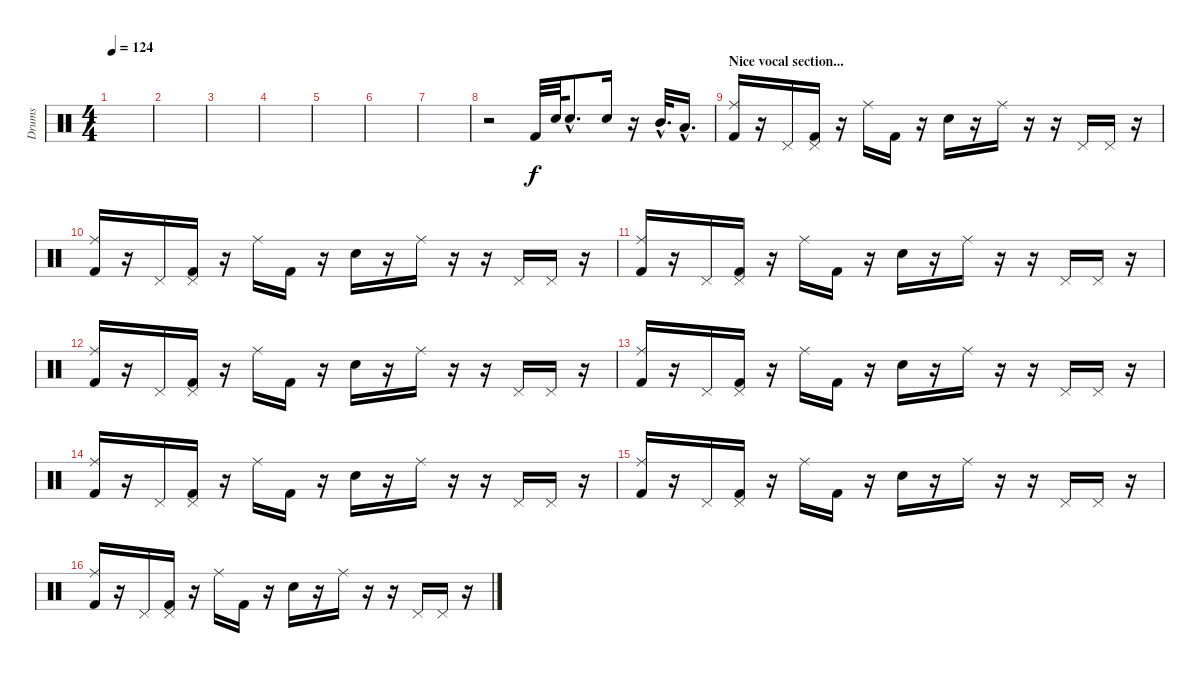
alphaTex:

\track ("Drums" "Drums") {instrument percussion}
\staff {score}
\articulation defaults
\ts (4 4)
\tempo 124
\clef neutral
\ks c
|
|
|
|
|
|
|
r.2 "Kick (hit) 2".32 "Electric Snare (hit)".64 "Electric Snare (hit)"{hac}.8{d} "Electric Snare (hit)".16 r.16 "Mid Tom (hit)"{hac}.32{d} "Low Tom (hit)"{hac}.16{d} |
\section ("" "Nice vocal section...")
("Ride (middle)" "Kick (hit) 2").16 r.16 "Pedal Hi-Hat (hit)".16 ("Pedal Hi-Hat (hit)" "Kick (hit) 2").16 r.16 "Ride (middle)".16 "Kick (hit) 2".16 r.16 "Electric Snare (hit)".16 r.16 "Ride (middle)".16 r.16 r.16 "Pedal Hi-Hat (hit)".16 "Pedal Hi-Hat (hit)".16 r.16 |
("Ride (middle)" "Kick (hit) 2").16 r.16 "Pedal Hi-Hat (hit)".16 ("Pedal Hi-Hat (hit)" "Kick (hit) 2").16 r.16 "Ride (middle)".16 "Kick (hit) 2".16 r.16 "Electric Snare (hit)".16 r.16 "Ride (middle)".16 r.16 r.16 "Pedal Hi-Hat (hit)".16 "Pedal Hi-Hat (hit)".16 r.16 |
("Ride (middle)" "Kick (hit) 2").16 r.16 "Pedal Hi-Hat (hit)".16 ("Pedal Hi-Hat (hit)" "Kick (hit) 2").16 r.16 "Ride (middle)".16 "Kick (hit) 2".16 r.16 "Electric Snare (hit)".16 r.16 "Ride (middle)".16 r.16 r.16 "Pedal Hi-Hat (hit)".16 "Pedal Hi-Hat (hit)".16 r.16 |
("Ride (middle)" "Kick (hit) 2").16 r.16 "Pedal Hi-Hat (hit)".16 ("Pedal Hi-Hat (hit)" "Kick (hit) 2").16 r.16 "Ride (middle)".16 "Kick (hit) 2".16 r.16 "Electric Snare (hit)".16 r.16 "Ride (middle)".16 r.16 r.16 "Pedal Hi-Hat (hit)".16 "Pedal Hi-Hat (hit)".16 r.16 |
("Ride (middle)" "Kick (hit) 2").16 r.16 "Pedal Hi-Hat (hit)".16 ("Pedal Hi-Hat (hit)" "Kick (hit) 2").16 r.16 "Ride (middle)".16 "Kick (hit) 2".16 r.16 "Electric Snare (hit)".16 r.16 "Ride (middle)".16 r.16 r.16 "Pedal Hi-Hat (hit)".16 "Pedal Hi-Hat (hit)".16 r.16 |
("Ride (middle)" "Kick (hit) 2").16 r.16 "Pedal Hi-Hat (hit)".16 ("Pedal Hi-Hat (hit)" "Kick (hit) 2").16 r.16 "Ride (middle)".16 "Kick (hit) 2".16 r.16 "Electric Snare (hit)".16 r.16 "Ride (middle)".16 r.16 r.16 "Pedal Hi-Hat (hit)".16 "Pedal Hi-Hat (hit)".16 r.16 |
("Ride (middle)" "Kick (hit) 2").16 r.16 "Pedal Hi-Hat (hit)".16 ("Pedal Hi-Hat (hit)" "Kick (hit) 2").16 r.16 "Ride (middle)".16 "Kick (hit) 2".16 r.16 "Electric Snare (hit)".16 r.16 "Ride (middle)".16 r.16 r.16 "Pedal Hi-Hat (hit)".16 "Pedal Hi-Hat (hit)".16 r.16 |
("Ride (middle)" "Kick (hit) 2").16 r.16 "Pedal Hi-Hat (hit)".16 ("Pedal Hi-Hat (hit)" "Kick (hit) 2").16 r.16 "Ride (middle)".16 "Kick (hit) 2".16 r.16 "Electric Snare (hit)".16 r.16 "Ride (middle)".16 r.16 r.16 "Pedal Hi-Hat (hit)".16 "Pedal Hi-Hat (hit)".16 r.16
